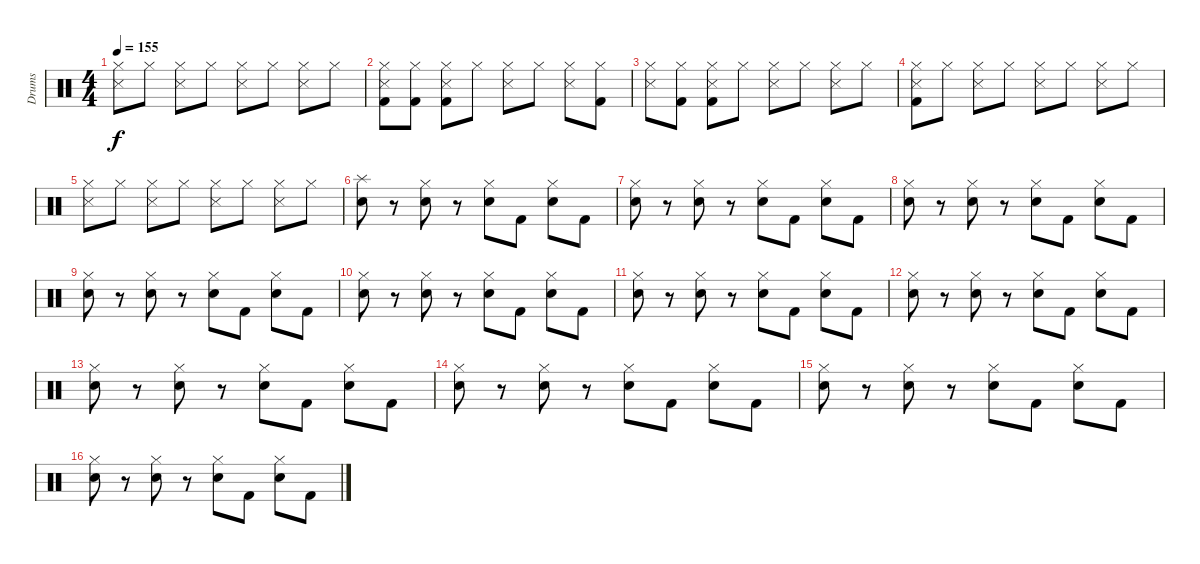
\track ("Drums" "Drums") {instrument percussion}
\staff {score}
\articulation defaults
\ts (4 4)
\tempo 155
\clef neutral
\ks c
("Hi-Hat (closed)" "Snare (side stick) 3").8{dy f} "Hi-Hat (closed)".8 ("Hi-Hat (closed)" "Snare (side stick) 3").8 "Hi-Hat (closed)".8 ("Hi-Hat (closed)" "Snare (side stick) 3").8 "Hi-Hat (closed)".8 ("Hi-Hat (closed)" "Snare (side stick) 3").8 "Hi-Hat (closed)".8 |
("Hi-Hat (closed)" "Snare (side stick) 3" "Kick (hit) 2").8 ("Hi-Hat (closed)" "Kick (hit) 2").8 ("Hi-Hat (closed)" "Snare (side stick) 3" "Kick (hit) 2").8 "Hi-Hat (closed)".8 ("Hi-Hat (closed)" "Snare (side stick) 3").8 "Hi-Hat (closed)".8 ("Hi-Hat (closed)" "Snare (side stick) 3").8 ("Hi-Hat (closed)" "Kick (hit) 2").8 |
("Hi-Hat (closed)" "Snare (side stick) 3").8 ("Hi-Hat (closed)" "Kick (hit) 2").8 ("Hi-Hat (closed)" "Snare (side stick) 3" "Kick (hit) 2").8 "Hi-Hat (closed)".8 ("Hi-Hat (closed)" "Snare (side stick) 3").8 "Hi-Hat (closed)".8 ("Hi-Hat (closed)" "Snare (side stick) 3").8 "Hi-Hat (closed)".8 |
("Hi-Hat (closed)" "Snare (side stick) 3" "Kick (hit) 2").8 "Hi-Hat (closed)".8 ("Hi-Hat (closed)" "Snare (side stick) 3").8 "Hi-Hat (closed)".8 ("Hi-Hat (closed)" "Snare (side stick) 3").8 "Hi-Hat (closed)".8 ("Hi-Hat (closed)" "Snare (side stick) 3").8 "Hi-Hat (closed)".8 |
("Hi-Hat (closed)" "Snare (side stick) 3").8 "Hi-Hat (closed)".8 ("Hi-Hat (closed)" "Snare (side stick) 3").8 "Hi-Hat (closed)".8 ("Hi-Hat (closed)" "Snare (side stick) 3").8 "Hi-Hat (closed)".8 ("Hi-Hat (closed)" "Snare (side stick) 3").8 "Hi-Hat (closed)".8 |
("Splash (hit)" "Electric Snare (hit)").8 r.8 ("Hi-Hat (closed)" "Electric Snare (hit)").8 r.8 ("Hi-Hat (closed)" "Electric Snare (hit)").8 "Kick (hit) 2".8 ("Hi-Hat (closed)" "Electric Snare (hit)").8 "Kick (hit) 2".8 |
("Hi-Hat (closed)" "Electric Snare (hit)").8 r.8 ("Hi-Hat (closed)" "Electric Snare (hit)").8 r.8 ("Hi-Hat (closed)" "Electric Snare (hit)").8 "Kick (hit) 2".8 ("Hi-Hat (closed)" "Electric Snare (hit)").8 "Kick (hit) 2".8 |
("Hi-Hat (closed)" "Electric Snare (hit)").8 r.8 ("Hi-Hat (closed)" "Electric Snare (hit)").8 r.8 ("Hi-Hat (closed)" "Electric Snare (hit)").8 "Kick (hit) 2".8 ("Hi-Hat (closed)" "Electric Snare (hit)").8 "Kick (hit) 2".8 |
("Hi-Hat (closed)" "Electric Snare (hit)").8 r.8 ("Hi-Hat (closed)" "Electric Snare (hit)").8 r.8 ("Hi-Hat (closed)" "Electric Snare (hit)").8 "Kick (hit) 2".8 ("Hi-Hat (closed)" "Electric Snare (hit)").8 "Kick (hit) 2".8 |
("Hi-Hat (closed)" "Electric Snare (hit)").8 r.8 ("Hi-Hat (closed)" "Electric Snare (hit)").8 r.8 ("Hi-Hat (closed)" "Electric Snare (hit)").8 "Kick (hit) 2".8 ("Hi-Hat (closed)" "Electric Snare (hit)").8 "Kick (hit) 2".8 |
("Hi-Hat (closed)" "Electric Snare (hit)").8 r.8 ("Hi-Hat (closed)" "Electric Snare (hit)").8 r.8 ("Hi-Hat (closed)" "Electric Snare (hit)").8 "Kick (hit) 2".8 ("Hi-Hat (closed)" "Electric Snare (hit)").8 "Kick (hit) 2".8 |
("Hi-Hat (closed)" "Electric Snare (hit)").8 r.8 ("Hi-Hat (closed)" "Electric Snare (hit)").8 r.8 ("Hi-Hat (closed)" "Electric Snare (hit)").8 "Kick (hit) 2".8 ("Hi-Hat (closed)" "Electric Snare (hit)").8 "Kick (hit) 2".8 |
("Hi-Hat (closed)" "Electric Snare (hit)").8 r.8 ("Hi-Hat (closed)" "Electric Snare (hit)").8 r.8 ("Hi-Hat (closed)" "Electric Snare (hit)").8 "Kick (hit) 2".8 ("Hi-Hat (closed)" "Electric Snare (hit)").8 "Kick (hit) 2".8 |
("Hi-Hat (closed)" "Electric Snare (hit)").8 r.8 ("Hi-Hat (closed)" "Electric Snare (hit)").8 r.8 ("Hi-Hat (closed)" "Electric Snare (hit)").8 "Kick (hit) 2".8 ("Hi-Hat (closed)" "Electric Snare (hit)").8 "Kick (hit) 2".8 |
("Hi-Hat (closed)" "Electric Snare (hit)").8 r.8 ("Hi-Hat (closed)" "Electric Snare (hit)").8 r.8 ("Hi-Hat (closed)" "Electric Snare (hit)").8 "Kick (hit) 2".8 ("Hi-Hat (closed)" "Electric Snare (hit)").8 "Kick (hit) 2".8 |
("Hi-Hat (closed)" "Electric Snare (hit)").8 r.8 ("Hi-Hat (closed)" "Electric Snare (hit)").8 r.8 ("Hi-Hat (closed)" "Electric Snare (hit)").8 "Kick (hit) 2".8 ("Hi-Hat (closed)" "Electric Snare (hit)").8 "Kick (hit) 2".8
